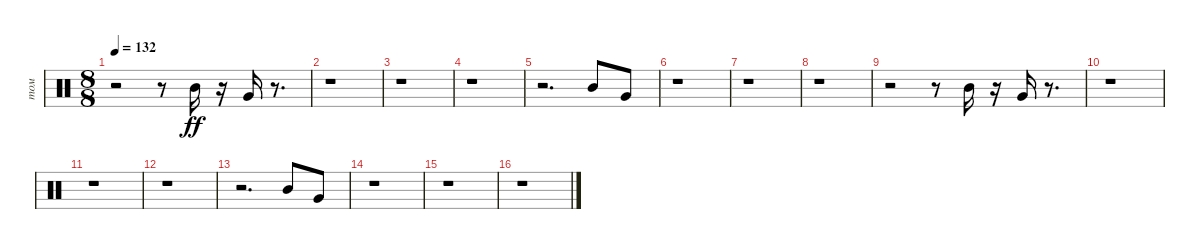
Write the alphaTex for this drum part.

\track ("том" "том") {instrument percussion}
\staff {score}
\articulation defaults
\ts (8 8)
\tempo 132
\clef neutral
\ks c
r.2{dy ff} r.8 "Mid Tom (hit)".16 r.16 "Very Low Tom (hit)".16 r.8{d} |
r.1 |
r.1 |
r.1 |
r.2{d} "Mid Tom (hit)".8 "Very Low Tom (hit)".8 |
r.1 |
r.1 |
r.1 |
r.2 r.8 "Mid Tom (hit)".16 r.16 "Very Low Tom (hit)".16 r.8{d} |
r.1 |
r.1 |
r.1 |
r.2{d} "Mid Tom (hit)".8 "Very Low Tom (hit)".8 |
r.1 |
r.1 |
r.1
